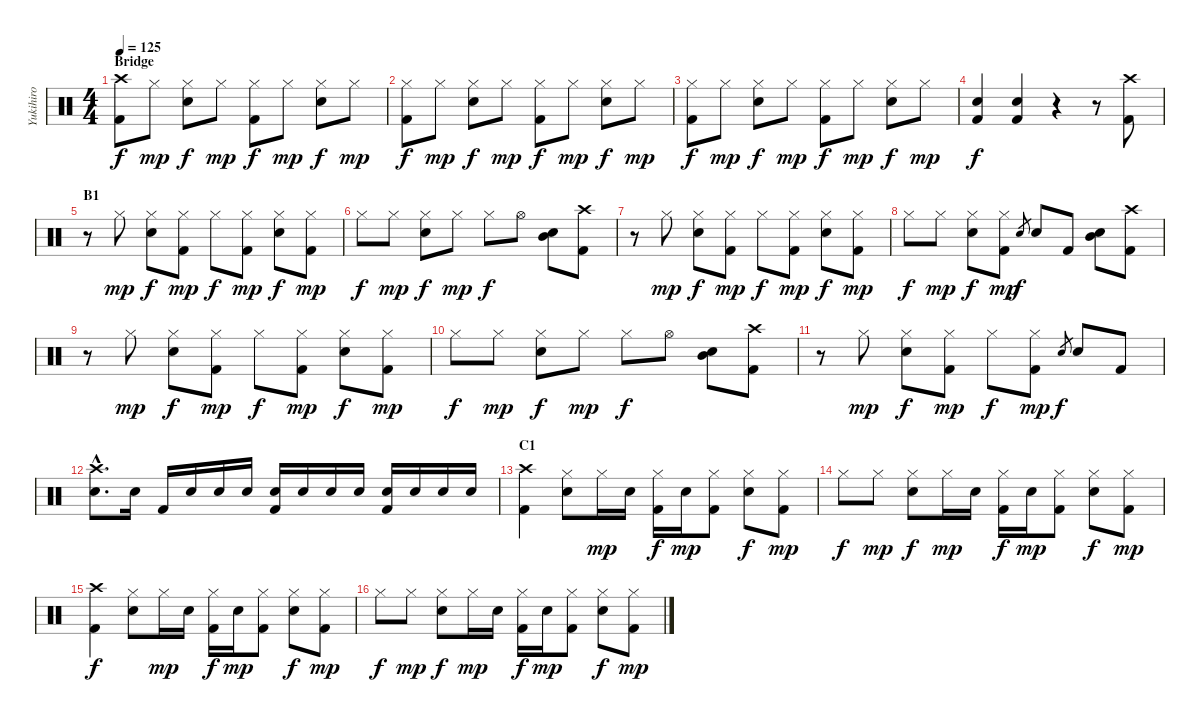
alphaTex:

\track ("Yukihiro" "Yukihiro") {instrument percussion}
\staff {score}
\articulation defaults
\ts (4 4)
\section ("" "Bridge")
\tempo 125
\clef neutral
\ks c
("Crash high (hit)" "Kick (hit) 2").8{dy f} "Hi-Hat (closed)".8{dy mp} ("Hi-Hat (closed)" "Electric Snare (hit)").8{dy f} "Hi-Hat (closed)".8{dy mp} ("Hi-Hat (closed)" "Kick (hit) 2").8{dy f} "Hi-Hat (closed)".8{dy mp} ("Hi-Hat (closed)" "Electric Snare (hit)").8{dy f} "Hi-Hat (closed)".8{dy mp} |
("Hi-Hat (closed)" "Kick (hit) 2").8{dy f} "Hi-Hat (closed)".8{dy mp} ("Hi-Hat (closed)" "Electric Snare (hit)").8{dy f} "Hi-Hat (closed)".8{dy mp} ("Hi-Hat (closed)" "Kick (hit) 2").8{dy f} "Hi-Hat (closed)".8{dy mp} ("Hi-Hat (closed)" "Electric Snare (hit)").8{dy f} "Hi-Hat (closed)".8{dy mp} |
("Hi-Hat (closed)" "Kick (hit) 2").8{dy f} "Hi-Hat (closed)".8{dy mp} ("Hi-Hat (closed)" "Electric Snare (hit)").8{dy f} "Hi-Hat (closed)".8{dy mp} ("Hi-Hat (closed)" "Kick (hit) 2").8{dy f} "Hi-Hat (closed)".8{dy mp} ("Hi-Hat (closed)" "Electric Snare (hit)").8{dy f} "Hi-Hat (closed)".8{dy mp} |
("Electric Snare (hit)" "Kick (hit) 2").4{dy f} ("Electric Snare (hit)" "Kick (hit) 2").4 r.4 r.8 ("Crash high (hit)" "Kick (hit) 2").8 |
\section ("" "B1")
r.8 "Hi-Hat (closed)".8{dy mp} ("Hi-Hat (closed)" "Electric Snare (hit)").8{dy f} ("Hi-Hat (closed)" "Kick (hit) 2").8{dy mp} "Hi-Hat (closed)".8{dy f} ("Hi-Hat (closed)" "Kick (hit) 2").8{dy mp} ("Hi-Hat (closed)" "Electric Snare (hit)").8{dy f} ("Hi-Hat (closed)" "Kick (hit) 2").8{dy mp} |
"Hi-Hat (closed)".8{dy f} "Hi-Hat (closed)".8{dy mp} ("Hi-Hat (closed)" "Electric Snare (hit)").8{dy f} "Hi-Hat (closed)".8{dy mp} "Hi-Hat (closed)".8{dy f} "Hi-Hat (open)".8 ("Electric Snare (hit)" "Mid Tom (hit)").8 ("Crash high (hit)" "Kick (hit) 2").8 |
r.8 "Hi-Hat (closed)".8{dy mp} ("Hi-Hat (closed)" "Electric Snare (hit)").8{dy f} ("Hi-Hat (closed)" "Kick (hit) 2").8{dy mp} "Hi-Hat (closed)".8{dy f} ("Hi-Hat (closed)" "Kick (hit) 2").8{dy mp} ("Hi-Hat (closed)" "Electric Snare (hit)").8{dy f} ("Hi-Hat (closed)" "Kick (hit) 2").8{dy mp} |
"Hi-Hat (closed)".8{dy f} "Hi-Hat (closed)".8{dy mp} ("Hi-Hat (closed)" "Electric Snare (hit)").8{dy f} ("Hi-Hat (closed)" "Kick (hit) 2").8{dy mp} "Electric Snare (hit)".8{gr dy f} "Electric Snare (hit)".8 "Kick (hit) 2".8 ("Electric Snare (hit)" "Mid Tom (hit)").8 ("Crash high (hit)" "Kick (hit) 2").8 |
r.8 "Hi-Hat (closed)".8{dy mp} ("Hi-Hat (closed)" "Electric Snare (hit)").8{dy f} ("Hi-Hat (closed)" "Kick (hit) 2").8{dy mp} "Hi-Hat (closed)".8{dy f} ("Hi-Hat (closed)" "Kick (hit) 2").8{dy mp} ("Hi-Hat (closed)" "Electric Snare (hit)").8{dy f} ("Hi-Hat (closed)" "Kick (hit) 2").8{dy mp} |
"Hi-Hat (closed)".8{dy f} "Hi-Hat (closed)".8{dy mp} ("Hi-Hat (closed)" "Electric Snare (hit)").8{dy f} "Hi-Hat (closed)".8{dy mp} "Hi-Hat (closed)".8{dy f} "Hi-Hat (open)".8 ("Electric Snare (hit)" "Mid Tom (hit)").8 ("Crash high (hit)" "Kick (hit) 2").8 |
r.8 "Hi-Hat (closed)".8{dy mp} ("Hi-Hat (closed)" "Electric Snare (hit)").8{dy f} ("Hi-Hat (closed)" "Kick (hit) 2").8{dy mp} "Hi-Hat (closed)".8{dy f} ("Hi-Hat (closed)" "Kick (hit) 2").8{dy mp} "Electric Snare (hit)".8{gr dy f} "Electric Snare (hit)".8 "Kick (hit) 2".8 |
("Crash high (hit)"{hac} "Electric Snare (hit)"{hac}).8{d} "Electric Snare (hit)".16 "Kick (hit) 2".16 "Electric Snare (hit)".16 "Electric Snare (hit)".16 "Electric Snare (hit)".16 ("Electric Snare (hit)" "Kick (hit) 2").16 "Electric Snare (hit)".16 "Electric Snare (hit)".16 "Electric Snare (hit)".16 ("Electric Snare (hit)" "Kick (hit) 2").16 "Electric Snare (hit)".16 "Electric Snare (hit)".16 "Electric Snare (hit)".16 |
\section ("" "C1")
("Crash high (hit)" "Kick (hit) 2").4 ("Hi-Hat (closed)" "Electric Snare (hit)").8 "Hi-Hat (closed)".16{dy mp} "Electric Snare (hit)".16 ("Hi-Hat (closed)" "Kick (hit) 2").16{dy f} "Electric Snare (hit)".16{dy mp} ("Hi-Hat (closed)" "Kick (hit) 2").8 ("Hi-Hat (closed)" "Electric Snare (hit)").8{dy f} ("Hi-Hat (closed)" "Kick (hit) 2").8{dy mp} |
"Hi-Hat (closed)".8{dy f} "Hi-Hat (closed)".8{dy mp} ("Hi-Hat (closed)" "Electric Snare (hit)").8{dy f} "Hi-Hat (closed)".16{dy mp} "Electric Snare (hit)".16 ("Hi-Hat (closed)" "Kick (hit) 2").16{dy f} "Electric Snare (hit)".16{dy mp} ("Hi-Hat (closed)" "Kick (hit) 2").8 ("Hi-Hat (closed)" "Electric Snare (hit)").8{dy f} ("Hi-Hat (closed)" "Kick (hit) 2").8{dy mp} |
("Crash high (hit)" "Kick (hit) 2").4{dy f} ("Hi-Hat (closed)" "Electric Snare (hit)").8 "Hi-Hat (closed)".16{dy mp} "Electric Snare (hit)".16 ("Hi-Hat (closed)" "Kick (hit) 2").16{dy f} "Electric Snare (hit)".16{dy mp} ("Hi-Hat (closed)" "Kick (hit) 2").8 ("Hi-Hat (closed)" "Electric Snare (hit)").8{dy f} ("Hi-Hat (closed)" "Kick (hit) 2").8{dy mp} |
"Hi-Hat (closed)".8{dy f} "Hi-Hat (closed)".8{dy mp} ("Hi-Hat (closed)" "Electric Snare (hit)").8{dy f} "Hi-Hat (closed)".16{dy mp} "Electric Snare (hit)".16 ("Hi-Hat (closed)" "Kick (hit) 2").16{dy f} "Electric Snare (hit)".16{dy mp} ("Hi-Hat (closed)" "Kick (hit) 2").8 ("Hi-Hat (closed)" "Electric Snare (hit)").8{dy f} ("Hi-Hat (closed)" "Kick (hit) 2").8{dy mp}
